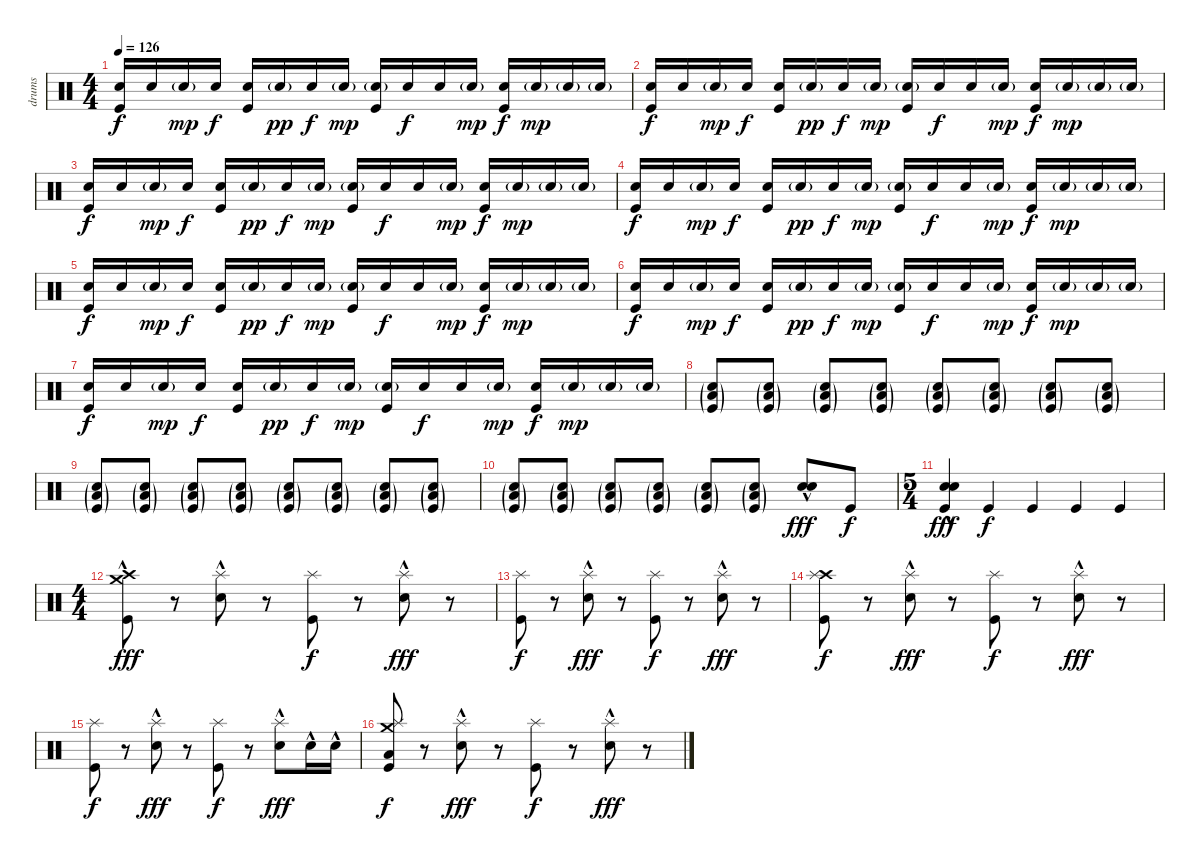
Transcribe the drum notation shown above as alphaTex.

\track ("drums" "drums") {instrument percussion}
\staff {score}
\articulation defaults
\ts (4 4)
\tempo 126
\clef neutral
\ks c
("Kick (hit)" "Electric Snare (hit)").16{dy f} "Electric Snare (hit)".16 "Electric Snare (hit)"{g}.16{dy mp} "Electric Snare (hit)".16{dy f} ("Kick (hit)" "Electric Snare (hit)").16 "Electric Snare (hit)"{g}.16{dy pp} "Electric Snare (hit)".16{dy f} "Electric Snare (hit)"{g}.16{dy mp} ("Kick (hit)" "Electric Snare (hit)"{g}).16 "Electric Snare (hit)".16{dy f} "Electric Snare (hit)".16 "Electric Snare (hit)"{g}.16{dy mp} ("Kick (hit)" "Electric Snare (hit)").16{dy f} "Electric Snare (hit)"{g}.16{dy mp} "Electric Snare (hit)"{g}.16 "Electric Snare (hit)"{g}.16 |
("Kick (hit)" "Electric Snare (hit)").16{dy f} "Electric Snare (hit)".16 "Electric Snare (hit)"{g}.16{dy mp} "Electric Snare (hit)".16{dy f} ("Kick (hit)" "Electric Snare (hit)").16 "Electric Snare (hit)"{g}.16{dy pp} "Electric Snare (hit)".16{dy f} "Electric Snare (hit)"{g}.16{dy mp} ("Kick (hit)" "Electric Snare (hit)"{g}).16 "Electric Snare (hit)".16{dy f} "Electric Snare (hit)".16 "Electric Snare (hit)"{g}.16{dy mp} ("Kick (hit)" "Electric Snare (hit)").16{dy f} "Electric Snare (hit)"{g}.16{dy mp} "Electric Snare (hit)"{g}.16 "Electric Snare (hit)"{g}.16 |
("Kick (hit)" "Electric Snare (hit)").16{dy f} "Electric Snare (hit)".16 "Electric Snare (hit)"{g}.16{dy mp} "Electric Snare (hit)".16{dy f} ("Kick (hit)" "Electric Snare (hit)").16 "Electric Snare (hit)"{g}.16{dy pp} "Electric Snare (hit)".16{dy f} "Electric Snare (hit)"{g}.16{dy mp} ("Kick (hit)" "Electric Snare (hit)"{g}).16 "Electric Snare (hit)".16{dy f} "Electric Snare (hit)".16 "Electric Snare (hit)"{g}.16{dy mp} ("Kick (hit)" "Electric Snare (hit)").16{dy f} "Electric Snare (hit)"{g}.16{dy mp} "Electric Snare (hit)"{g}.16 "Electric Snare (hit)"{g}.16 |
("Kick (hit)" "Electric Snare (hit)").16{dy f} "Electric Snare (hit)".16 "Electric Snare (hit)"{g}.16{dy mp} "Electric Snare (hit)".16{dy f} ("Kick (hit)" "Electric Snare (hit)").16 "Electric Snare (hit)"{g}.16{dy pp} "Electric Snare (hit)".16{dy f} "Electric Snare (hit)"{g}.16{dy mp} ("Kick (hit)" "Electric Snare (hit)"{g}).16 "Electric Snare (hit)".16{dy f} "Electric Snare (hit)".16 "Electric Snare (hit)"{g}.16{dy mp} ("Kick (hit)" "Electric Snare (hit)").16{dy f} "Electric Snare (hit)"{g}.16{dy mp} "Electric Snare (hit)"{g}.16 "Electric Snare (hit)"{g}.16 |
("Kick (hit)" "Electric Snare (hit)").16{dy f} "Electric Snare (hit)".16 "Electric Snare (hit)"{g}.16{dy mp} "Electric Snare (hit)".16{dy f} ("Kick (hit)" "Electric Snare (hit)").16 "Electric Snare (hit)"{g}.16{dy pp} "Electric Snare (hit)".16{dy f} "Electric Snare (hit)"{g}.16{dy mp} ("Kick (hit)" "Electric Snare (hit)"{g}).16 "Electric Snare (hit)".16{dy f} "Electric Snare (hit)".16 "Electric Snare (hit)"{g}.16{dy mp} ("Kick (hit)" "Electric Snare (hit)").16{dy f} "Electric Snare (hit)"{g}.16{dy mp} "Electric Snare (hit)"{g}.16 "Electric Snare (hit)"{g}.16 |
("Kick (hit)" "Electric Snare (hit)").16{dy f} "Electric Snare (hit)".16 "Electric Snare (hit)"{g}.16{dy mp} "Electric Snare (hit)".16{dy f} ("Kick (hit)" "Electric Snare (hit)").16 "Electric Snare (hit)"{g}.16{dy pp} "Electric Snare (hit)".16{dy f} "Electric Snare (hit)"{g}.16{dy mp} ("Kick (hit)" "Electric Snare (hit)"{g}).16 "Electric Snare (hit)".16{dy f} "Electric Snare (hit)".16 "Electric Snare (hit)"{g}.16{dy mp} ("Kick (hit)" "Electric Snare (hit)").16{dy f} "Electric Snare (hit)"{g}.16{dy mp} "Electric Snare (hit)"{g}.16 "Electric Snare (hit)"{g}.16 |
("Kick (hit)" "Electric Snare (hit)").16{dy f} "Electric Snare (hit)".16 "Electric Snare (hit)"{g}.16{dy mp} "Electric Snare (hit)".16{dy f} ("Kick (hit)" "Electric Snare (hit)").16 "Electric Snare (hit)"{g}.16{dy pp} "Electric Snare (hit)".16{dy f} "Electric Snare (hit)"{g}.16{dy mp} ("Kick (hit)" "Electric Snare (hit)"{g}).16 "Electric Snare (hit)".16{dy f} "Electric Snare (hit)".16 "Electric Snare (hit)"{g}.16{dy mp} ("Kick (hit)" "Electric Snare (hit)").16{dy f} "Electric Snare (hit)"{g}.16{dy mp} "Electric Snare (hit)"{g}.16 "Electric Snare (hit)"{g}.16 |
("Electric Snare (hit)"{g} "Low Floor Tom (hit)"{g} "Kick (hit)"{g}).8{volume 9} ("Electric Snare (hit)"{g} "Low Floor Tom (hit)"{g} "Kick (hit)"{g}).8 ("Electric Snare (hit)"{g} "Low Floor Tom (hit)"{g} "Kick (hit)"{g}).8 ("Electric Snare (hit)"{g} "Low Floor Tom (hit)"{g} "Kick (hit)"{g}).8{volume 16} ("Electric Snare (hit)"{g} "Low Floor Tom (hit)"{g} "Kick (hit)"{g}).8 ("Electric Snare (hit)"{g} "Low Floor Tom (hit)"{g} "Kick (hit)"{g}).8 ("Electric Snare (hit)"{g} "Low Floor Tom (hit)"{g} "Kick (hit)"{g}).8 ("Electric Snare (hit)"{g} "Low Floor Tom (hit)"{g} "Kick (hit)"{g}).8 |
("Electric Snare (hit)"{g} "Low Floor Tom (hit)"{g} "Kick (hit)"{g}).8 ("Electric Snare (hit)"{g} "Low Floor Tom (hit)"{g} "Kick (hit)"{g}).8 ("Electric Snare (hit)"{g} "Low Floor Tom (hit)"{g} "Kick (hit)"{g}).8 ("Electric Snare (hit)"{g} "Low Floor Tom (hit)"{g} "Kick (hit)"{g}).8 ("Electric Snare (hit)"{g} "Low Floor Tom (hit)"{g} "Kick (hit)"{g}).8 ("Electric Snare (hit)"{g} "Low Floor Tom (hit)"{g} "Kick (hit)"{g}).8 ("Electric Snare (hit)"{g} "Low Floor Tom (hit)"{g} "Kick (hit)"{g}).8 ("Electric Snare (hit)"{g} "Low Floor Tom (hit)"{g} "Kick (hit)"{g}).8 |
("Electric Snare (hit)"{g} "Low Floor Tom (hit)"{g} "Kick (hit)"{g}).8 ("Electric Snare (hit)"{g} "Low Floor Tom (hit)"{g} "Kick (hit)"{g}).8 ("Electric Snare (hit)"{g} "Low Floor Tom (hit)"{g} "Kick (hit)"{g}).8 ("Electric Snare (hit)"{g} "Low Floor Tom (hit)"{g} "Kick (hit)"{g}).8 ("Electric Snare (hit)"{g} "Low Floor Tom (hit)"{g} "Kick (hit)"{g}).8 ("Electric Snare (hit)"{g} "Low Floor Tom (hit)"{g} "Kick (hit)"{g}).8 ("Electric Snare (hit)"{hac} "Electric Snare (hit)"{hac}).8{dy fff} "Kick (hit)".8{dy f} |
\ts (5 4)
("Electric Snare (hit)"{hac} "Electric Snare (hit)"{hac} "Kick (hit)"{hac}).4{dy fff} "Kick (hit)".4{dy f} "Kick (hit)".4 "Kick (hit)".4 "Kick (hit)".4 |
\ts (4 4)
("Crash high (hit)"{hac} "Crash medium (hit)"{hac} "Kick (hit)").8{dy fff} r.8 ("Splash (hit)" "Electric Snare (hit)"{hac}).8 r.8 ("Splash (hit)" "Kick (hit)").8{dy f} r.8 ("Splash (hit)" "Electric Snare (hit)"{hac}).8{dy fff} r.8 |
("Splash (hit)" "Kick (hit)").8{dy f} r.8 ("Splash (hit)" "Electric Snare (hit)"{hac}).8{dy fff} r.8 ("Splash (hit)" "Kick (hit)").8{dy f} r.8 ("Splash (hit)" "Electric Snare (hit)"{hac}).8{dy fff} r.8 |
("Crash high (hit)" "Splash (hit)" "Kick (hit)").8{dy f} r.8 ("Splash (hit)" "Electric Snare (hit)"{hac}).8{dy fff} r.8 ("Splash (hit)" "Kick (hit)").8{dy f} r.8 ("Splash (hit)" "Electric Snare (hit)"{hac}).8{dy fff} r.8 |
("Splash (hit)" "Kick (hit)").8{dy f} r.8 ("Splash (hit)" "Electric Snare (hit)"{hac}).8{dy fff} r.8 ("Splash (hit)" "Kick (hit)").8{dy f} r.8 ("Splash (hit)" "Electric Snare (hit)"{hac}).8{dy fff} "Electric Snare (hit)"{hac}.16 "Electric Snare (hit)"{hac}.16 |
("Crash medium (hit)" "Splash (hit)" "Low Tom (hit)" "Kick (hit)").8{dy f} r.8 ("Splash (hit)" "Electric Snare (hit)"{hac}).8{dy fff} r.8 ("Splash (hit)" "Kick (hit)").8{dy f} r.8 ("Splash (hit)" "Electric Snare (hit)"{hac}).8{dy fff} r.8
